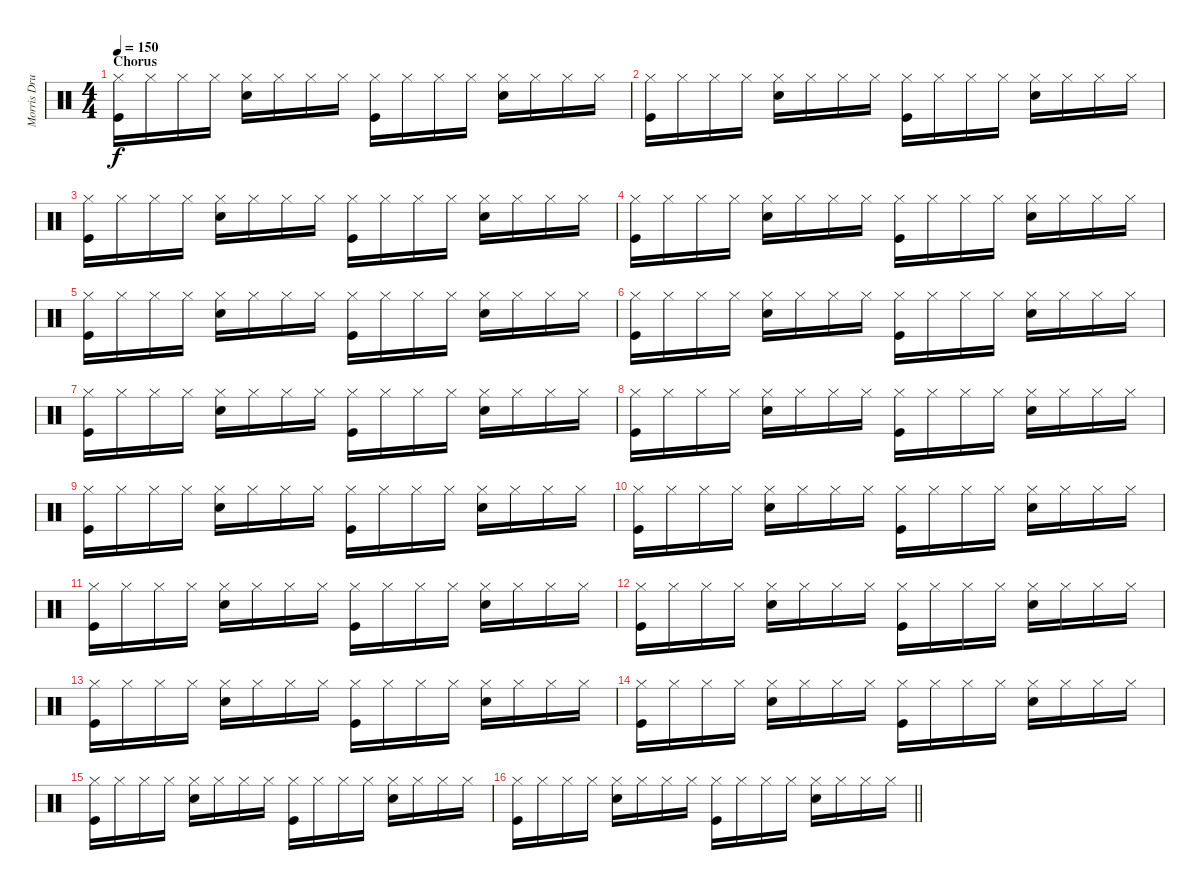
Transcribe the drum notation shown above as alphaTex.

\track ("Morris Drums" "Morris Dru") {instrument percussion}
\staff {score}
\articulation defaults
\ts (4 4)
\section ("" "Chorus")
\tempo 150
\clef neutral
\ks c
("Hi-Hat (closed)" "Kick (hit)").16{dy f} "Hi-Hat (closed)".16 "Hi-Hat (closed)".16 "Hi-Hat (closed)".16 ("Hi-Hat (closed)" "Snare (hit) 2").16 "Hi-Hat (closed)".16 "Hi-Hat (closed)".16 "Hi-Hat (closed)".16 ("Hi-Hat (closed)" "Kick (hit)").16 "Hi-Hat (closed)".16 "Hi-Hat (closed)".16 "Hi-Hat (closed)".16 ("Hi-Hat (closed)" "Snare (hit) 2").16 "Hi-Hat (closed)".16 "Hi-Hat (closed)".16 "Hi-Hat (closed)".16 |
("Hi-Hat (closed)" "Kick (hit)").16 "Hi-Hat (closed)".16 "Hi-Hat (closed)".16 "Hi-Hat (closed)".16 ("Hi-Hat (closed)" "Snare (hit) 2").16 "Hi-Hat (closed)".16 "Hi-Hat (closed)".16 "Hi-Hat (closed)".16 ("Hi-Hat (closed)" "Kick (hit)").16 "Hi-Hat (closed)".16 "Hi-Hat (closed)".16 "Hi-Hat (closed)".16 ("Hi-Hat (closed)" "Snare (hit) 2").16 "Hi-Hat (closed)".16 "Hi-Hat (closed)".16 "Hi-Hat (closed)".16 |
("Hi-Hat (closed)" "Kick (hit)").16 "Hi-Hat (closed)".16 "Hi-Hat (closed)".16 "Hi-Hat (closed)".16 ("Hi-Hat (closed)" "Snare (hit) 2").16 "Hi-Hat (closed)".16 "Hi-Hat (closed)".16 "Hi-Hat (closed)".16 ("Hi-Hat (closed)" "Kick (hit)").16 "Hi-Hat (closed)".16 "Hi-Hat (closed)".16 "Hi-Hat (closed)".16 ("Hi-Hat (closed)" "Snare (hit) 2").16 "Hi-Hat (closed)".16 "Hi-Hat (closed)".16 "Hi-Hat (closed)".16 |
("Hi-Hat (closed)" "Kick (hit)").16 "Hi-Hat (closed)".16 "Hi-Hat (closed)".16 "Hi-Hat (closed)".16 ("Hi-Hat (closed)" "Snare (hit) 2").16 "Hi-Hat (closed)".16 "Hi-Hat (closed)".16 "Hi-Hat (closed)".16 ("Hi-Hat (closed)" "Kick (hit)").16 "Hi-Hat (closed)".16 "Hi-Hat (closed)".16 "Hi-Hat (closed)".16 ("Hi-Hat (closed)" "Snare (hit) 2").16 "Hi-Hat (closed)".16 "Hi-Hat (closed)".16 "Hi-Hat (closed)".16 |
("Hi-Hat (closed)" "Kick (hit)").16 "Hi-Hat (closed)".16 "Hi-Hat (closed)".16 "Hi-Hat (closed)".16 ("Hi-Hat (closed)" "Snare (hit) 2").16 "Hi-Hat (closed)".16 "Hi-Hat (closed)".16 "Hi-Hat (closed)".16 ("Hi-Hat (closed)" "Kick (hit)").16 "Hi-Hat (closed)".16 "Hi-Hat (closed)".16 "Hi-Hat (closed)".16 ("Hi-Hat (closed)" "Snare (hit) 2").16 "Hi-Hat (closed)".16 "Hi-Hat (closed)".16 "Hi-Hat (closed)".16 |
("Hi-Hat (closed)" "Kick (hit)").16 "Hi-Hat (closed)".16 "Hi-Hat (closed)".16 "Hi-Hat (closed)".16 ("Hi-Hat (closed)" "Snare (hit) 2").16 "Hi-Hat (closed)".16 "Hi-Hat (closed)".16 "Hi-Hat (closed)".16 ("Hi-Hat (closed)" "Kick (hit)").16 "Hi-Hat (closed)".16 "Hi-Hat (closed)".16 "Hi-Hat (closed)".16 ("Hi-Hat (closed)" "Snare (hit) 2").16 "Hi-Hat (closed)".16 "Hi-Hat (closed)".16 "Hi-Hat (closed)".16 |
("Hi-Hat (closed)" "Kick (hit)").16 "Hi-Hat (closed)".16 "Hi-Hat (closed)".16 "Hi-Hat (closed)".16 ("Hi-Hat (closed)" "Snare (hit) 2").16 "Hi-Hat (closed)".16 "Hi-Hat (closed)".16 "Hi-Hat (closed)".16 ("Hi-Hat (closed)" "Kick (hit)").16 "Hi-Hat (closed)".16 "Hi-Hat (closed)".16 "Hi-Hat (closed)".16 ("Hi-Hat (closed)" "Snare (hit) 2").16 "Hi-Hat (closed)".16 "Hi-Hat (closed)".16 "Hi-Hat (closed)".16 |
("Hi-Hat (closed)" "Kick (hit)").16 "Hi-Hat (closed)".16 "Hi-Hat (closed)".16 "Hi-Hat (closed)".16 ("Hi-Hat (closed)" "Snare (hit) 2").16 "Hi-Hat (closed)".16 "Hi-Hat (closed)".16 "Hi-Hat (closed)".16 ("Hi-Hat (closed)" "Kick (hit)").16 "Hi-Hat (closed)".16 "Hi-Hat (closed)".16 "Hi-Hat (closed)".16 ("Hi-Hat (closed)" "Snare (hit) 2").16 "Hi-Hat (closed)".16 "Hi-Hat (closed)".16 "Hi-Hat (closed)".16 |
("Hi-Hat (closed)" "Kick (hit)").16 "Hi-Hat (closed)".16 "Hi-Hat (closed)".16 "Hi-Hat (closed)".16 ("Hi-Hat (closed)" "Snare (hit) 2").16 "Hi-Hat (closed)".16 "Hi-Hat (closed)".16 "Hi-Hat (closed)".16 ("Hi-Hat (closed)" "Kick (hit)").16 "Hi-Hat (closed)".16 "Hi-Hat (closed)".16 "Hi-Hat (closed)".16 ("Hi-Hat (closed)" "Snare (hit) 2").16 "Hi-Hat (closed)".16 "Hi-Hat (closed)".16 "Hi-Hat (closed)".16 |
("Hi-Hat (closed)" "Kick (hit)").16 "Hi-Hat (closed)".16 "Hi-Hat (closed)".16 "Hi-Hat (closed)".16 ("Hi-Hat (closed)" "Snare (hit) 2").16 "Hi-Hat (closed)".16 "Hi-Hat (closed)".16 "Hi-Hat (closed)".16 ("Hi-Hat (closed)" "Kick (hit)").16 "Hi-Hat (closed)".16 "Hi-Hat (closed)".16 "Hi-Hat (closed)".16 ("Hi-Hat (closed)" "Snare (hit) 2").16 "Hi-Hat (closed)".16 "Hi-Hat (closed)".16 "Hi-Hat (closed)".16 |
("Hi-Hat (closed)" "Kick (hit)").16 "Hi-Hat (closed)".16 "Hi-Hat (closed)".16 "Hi-Hat (closed)".16 ("Hi-Hat (closed)" "Snare (hit) 2").16 "Hi-Hat (closed)".16 "Hi-Hat (closed)".16 "Hi-Hat (closed)".16 ("Hi-Hat (closed)" "Kick (hit)").16 "Hi-Hat (closed)".16 "Hi-Hat (closed)".16 "Hi-Hat (closed)".16 ("Hi-Hat (closed)" "Snare (hit) 2").16 "Hi-Hat (closed)".16 "Hi-Hat (closed)".16 "Hi-Hat (closed)".16 |
("Hi-Hat (closed)" "Kick (hit)").16 "Hi-Hat (closed)".16 "Hi-Hat (closed)".16 "Hi-Hat (closed)".16 ("Hi-Hat (closed)" "Snare (hit) 2").16 "Hi-Hat (closed)".16 "Hi-Hat (closed)".16 "Hi-Hat (closed)".16 ("Hi-Hat (closed)" "Kick (hit)").16 "Hi-Hat (closed)".16 "Hi-Hat (closed)".16 "Hi-Hat (closed)".16 ("Hi-Hat (closed)" "Snare (hit) 2").16 "Hi-Hat (closed)".16 "Hi-Hat (closed)".16 "Hi-Hat (closed)".16 |
("Hi-Hat (closed)" "Kick (hit)").16 "Hi-Hat (closed)".16 "Hi-Hat (closed)".16 "Hi-Hat (closed)".16 ("Hi-Hat (closed)" "Snare (hit) 2").16 "Hi-Hat (closed)".16 "Hi-Hat (closed)".16 "Hi-Hat (closed)".16 ("Hi-Hat (closed)" "Kick (hit)").16 "Hi-Hat (closed)".16 "Hi-Hat (closed)".16 "Hi-Hat (closed)".16 ("Hi-Hat (closed)" "Snare (hit) 2").16 "Hi-Hat (closed)".16 "Hi-Hat (closed)".16 "Hi-Hat (closed)".16 |
("Hi-Hat (closed)" "Kick (hit)").16 "Hi-Hat (closed)".16 "Hi-Hat (closed)".16 "Hi-Hat (closed)".16 ("Hi-Hat (closed)" "Snare (hit) 2").16 "Hi-Hat (closed)".16 "Hi-Hat (closed)".16 "Hi-Hat (closed)".16 ("Hi-Hat (closed)" "Kick (hit)").16 "Hi-Hat (closed)".16 "Hi-Hat (closed)".16 "Hi-Hat (closed)".16 ("Hi-Hat (closed)" "Snare (hit) 2").16 "Hi-Hat (closed)".16 "Hi-Hat (closed)".16 "Hi-Hat (closed)".16 |
("Hi-Hat (closed)" "Kick (hit)").16 "Hi-Hat (closed)".16 "Hi-Hat (closed)".16 "Hi-Hat (closed)".16 ("Hi-Hat (closed)" "Snare (hit) 2").16 "Hi-Hat (closed)".16 "Hi-Hat (closed)".16 "Hi-Hat (closed)".16 ("Hi-Hat (closed)" "Kick (hit)").16 "Hi-Hat (closed)".16 "Hi-Hat (closed)".16 "Hi-Hat (closed)".16 ("Hi-Hat (closed)" "Snare (hit) 2").16 "Hi-Hat (closed)".16 "Hi-Hat (closed)".16 "Hi-Hat (closed)".16 |
\barLineRight lightlight
("Hi-Hat (closed)" "Kick (hit)").16 "Hi-Hat (closed)".16 "Hi-Hat (closed)".16 "Hi-Hat (closed)".16 ("Hi-Hat (closed)" "Snare (hit) 2").16 "Hi-Hat (closed)".16 "Hi-Hat (closed)".16 "Hi-Hat (closed)".16 ("Hi-Hat (closed)" "Kick (hit)").16 "Hi-Hat (closed)".16 "Hi-Hat (closed)".16 "Hi-Hat (closed)".16 ("Hi-Hat (closed)" "Snare (hit) 2").16 "Hi-Hat (closed)".16 "Hi-Hat (closed)".16 "Hi-Hat (closed)".16
